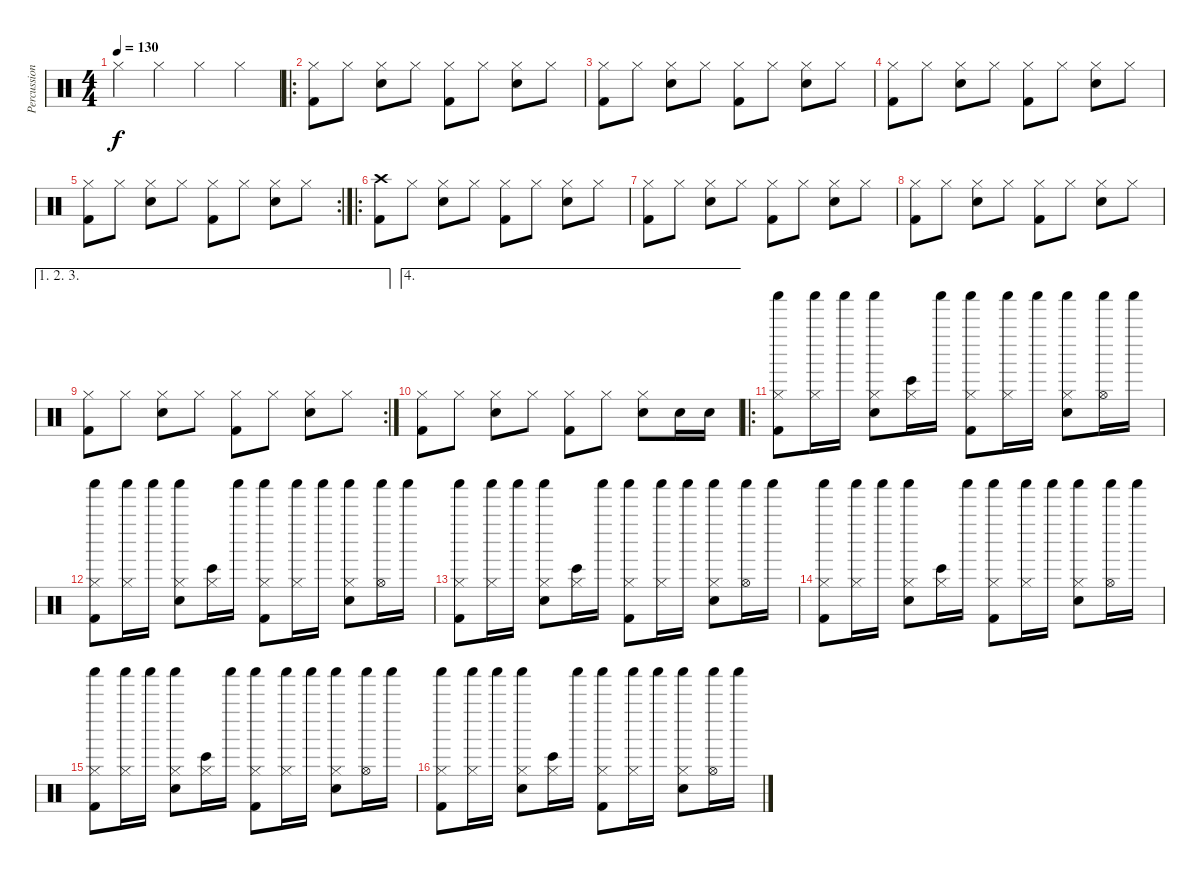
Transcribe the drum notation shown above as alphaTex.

\track ("Percussion" "Percussion") {instrument percussion}
\staff {score}
\articulation defaults
\ts (4 4)
\tempo 130
\clef neutral
\ks c "Hi-Hat (closed)".4{dy f} "Hi-Hat (closed)".4 "Hi-Hat (closed)".4 "Hi-Hat (closed)".4
|
\ro
("Hi-Hat (closed)" "Kick (hit) 2").8 "Hi-Hat (closed)".8 ("Hi-Hat (closed)" "Electric Snare (hit)").8 "Hi-Hat (closed)".8 ("Hi-Hat (closed)" "Kick (hit) 2").8 "Hi-Hat (closed)".8 ("Hi-Hat (closed)" "Electric Snare (hit)").8 "Hi-Hat (closed)".8 |
("Hi-Hat (closed)" "Kick (hit) 2").8 "Hi-Hat (closed)".8 ("Hi-Hat (closed)" "Electric Snare (hit)").8 "Hi-Hat (closed)".8 ("Hi-Hat (closed)" "Kick (hit) 2").8 "Hi-Hat (closed)".8 ("Hi-Hat (closed)" "Electric Snare (hit)").8 "Hi-Hat (closed)".8 |
("Hi-Hat (closed)" "Kick (hit) 2").8 "Hi-Hat (closed)".8 ("Hi-Hat (closed)" "Electric Snare (hit)").8 "Hi-Hat (closed)".8 ("Hi-Hat (closed)" "Kick (hit) 2").8 "Hi-Hat (closed)".8 ("Hi-Hat (closed)" "Electric Snare (hit)").8 "Hi-Hat (closed)".8 |
\rc 2
("Hi-Hat (closed)" "Kick (hit) 2").8 "Hi-Hat (closed)".8 ("Hi-Hat (closed)" "Electric Snare (hit)").8 "Hi-Hat (closed)".8 ("Hi-Hat (closed)" "Kick (hit) 2").8 "Hi-Hat (closed)".8 ("Hi-Hat (closed)" "Electric Snare (hit)").8 "Hi-Hat (closed)".8 |
\ro
("Crash high (hit)" "Kick (hit) 2").8 "Hi-Hat (closed)".8 ("Hi-Hat (closed)" "Electric Snare (hit)").8 "Hi-Hat (closed)".8 ("Hi-Hat (closed)" "Kick (hit) 2").8 "Hi-Hat (closed)".8 ("Hi-Hat (closed)" "Electric Snare (hit)").8 "Hi-Hat (closed)".8 |
("Hi-Hat (closed)" "Kick (hit) 2").8 "Hi-Hat (closed)".8 ("Hi-Hat (closed)" "Electric Snare (hit)").8 "Hi-Hat (closed)".8 ("Hi-Hat (closed)" "Kick (hit) 2").8 "Hi-Hat (closed)".8 ("Hi-Hat (closed)" "Electric Snare (hit)").8 "Hi-Hat (closed)".8 |
("Hi-Hat (closed)" "Kick (hit) 2").8 "Hi-Hat (closed)".8 ("Hi-Hat (closed)" "Electric Snare (hit)").8 "Hi-Hat (closed)".8 ("Hi-Hat (closed)" "Kick (hit) 2").8 "Hi-Hat (closed)".8 ("Hi-Hat (closed)" "Electric Snare (hit)").8 "Hi-Hat (closed)".8 |
\ae (1 2 3)
\rc 2
("Hi-Hat (closed)" "Kick (hit) 2").8 "Hi-Hat (closed)".8 ("Hi-Hat (closed)" "Electric Snare (hit)").8 "Hi-Hat (closed)".8 ("Hi-Hat (closed)" "Kick (hit) 2").8 "Hi-Hat (closed)".8 ("Hi-Hat (closed)" "Electric Snare (hit)").8 "Hi-Hat (closed)".8 |
\ae 4
("Hi-Hat (closed)" "Kick (hit) 2").8 "Hi-Hat (closed)".8 ("Hi-Hat (closed)" "Electric Snare (hit)").8 "Hi-Hat (closed)".8 ("Hi-Hat (closed)" "Kick (hit) 2").8 "Hi-Hat (closed)".8 ("Hi-Hat (closed)" "Electric Snare (hit)").8 "Electric Snare (hit)".16 "Electric Snare (hit)".16 |
\ro
("Hi-Hat (closed)" "Kick (hit) 2" "Shaker (hit)").8 ("Hi-Hat (closed)" "Shaker (hit)").16 "Shaker (hit)".16 ("Hi-Hat (closed)" "Electric Snare (hit)" "Shaker (hit)").8 ("Hi-Hat (closed)" "Bongo High (hit)").16 "Shaker (hit)".16 ("Hi-Hat (closed)" "Kick (hit) 2" "Shaker (hit)").8 ("Hi-Hat (closed)" "Shaker (hit)").16 "Shaker (hit)".16 ("Hi-Hat (closed)" "Electric Snare (hit)" "Shaker (hit)").8 ("Hi-Hat (open)" "Shaker (hit)").16 "Shaker (hit)".16 |
("Hi-Hat (closed)" "Kick (hit) 2" "Shaker (hit)").8 ("Hi-Hat (closed)" "Shaker (hit)").16 "Shaker (hit)".16 ("Hi-Hat (closed)" "Electric Snare (hit)" "Shaker (hit)").8 ("Hi-Hat (closed)" "Bongo High (hit)").16 "Shaker (hit)".16 ("Hi-Hat (closed)" "Kick (hit) 2" "Shaker (hit)").8 ("Hi-Hat (closed)" "Shaker (hit)").16 "Shaker (hit)".16 ("Hi-Hat (closed)" "Electric Snare (hit)" "Shaker (hit)").8 ("Hi-Hat (open)" "Shaker (hit)").16 "Shaker (hit)".16 |
("Hi-Hat (closed)" "Kick (hit) 2" "Shaker (hit)").8 ("Hi-Hat (closed)" "Shaker (hit)").16 "Shaker (hit)".16 ("Hi-Hat (closed)" "Electric Snare (hit)" "Shaker (hit)").8 ("Hi-Hat (closed)" "Bongo High (hit)").16 "Shaker (hit)".16 ("Hi-Hat (closed)" "Kick (hit) 2" "Shaker (hit)").8 ("Hi-Hat (closed)" "Shaker (hit)").16 "Shaker (hit)".16 ("Hi-Hat (closed)" "Electric Snare (hit)" "Shaker (hit)").8 ("Hi-Hat (open)" "Shaker (hit)").16 "Shaker (hit)".16 |
("Hi-Hat (closed)" "Kick (hit) 2" "Shaker (hit)").8 ("Hi-Hat (closed)" "Shaker (hit)").16 "Shaker (hit)".16 ("Hi-Hat (closed)" "Electric Snare (hit)" "Shaker (hit)").8 ("Hi-Hat (closed)" "Bongo High (hit)").16 "Shaker (hit)".16 ("Hi-Hat (closed)" "Kick (hit) 2" "Shaker (hit)").8 ("Hi-Hat (closed)" "Shaker (hit)").16 "Shaker (hit)".16 ("Hi-Hat (closed)" "Electric Snare (hit)" "Shaker (hit)").8 ("Hi-Hat (open)" "Shaker (hit)").16 "Shaker (hit)".16 |
("Hi-Hat (closed)" "Kick (hit) 2" "Shaker (hit)").8 ("Hi-Hat (closed)" "Shaker (hit)").16 "Shaker (hit)".16 ("Hi-Hat (closed)" "Electric Snare (hit)" "Shaker (hit)").8 ("Hi-Hat (closed)" "Bongo High (hit)").16 "Shaker (hit)".16 ("Hi-Hat (closed)" "Kick (hit) 2" "Shaker (hit)").8 ("Hi-Hat (closed)" "Shaker (hit)").16 "Shaker (hit)".16 ("Hi-Hat (closed)" "Electric Snare (hit)" "Shaker (hit)").8 ("Hi-Hat (open)" "Shaker (hit)").16 "Shaker (hit)".16 |
("Hi-Hat (closed)" "Kick (hit) 2" "Shaker (hit)").8 ("Hi-Hat (closed)" "Shaker (hit)").16 "Shaker (hit)".16 ("Hi-Hat (closed)" "Electric Snare (hit)" "Shaker (hit)").8 ("Hi-Hat (closed)" "Bongo High (hit)").16 "Shaker (hit)".16 ("Hi-Hat (closed)" "Kick (hit) 2" "Shaker (hit)").8 ("Hi-Hat (closed)" "Shaker (hit)").16 "Shaker (hit)".16 ("Hi-Hat (closed)" "Electric Snare (hit)" "Shaker (hit)").8 ("Hi-Hat (open)" "Shaker (hit)").16 "Shaker (hit)".16
